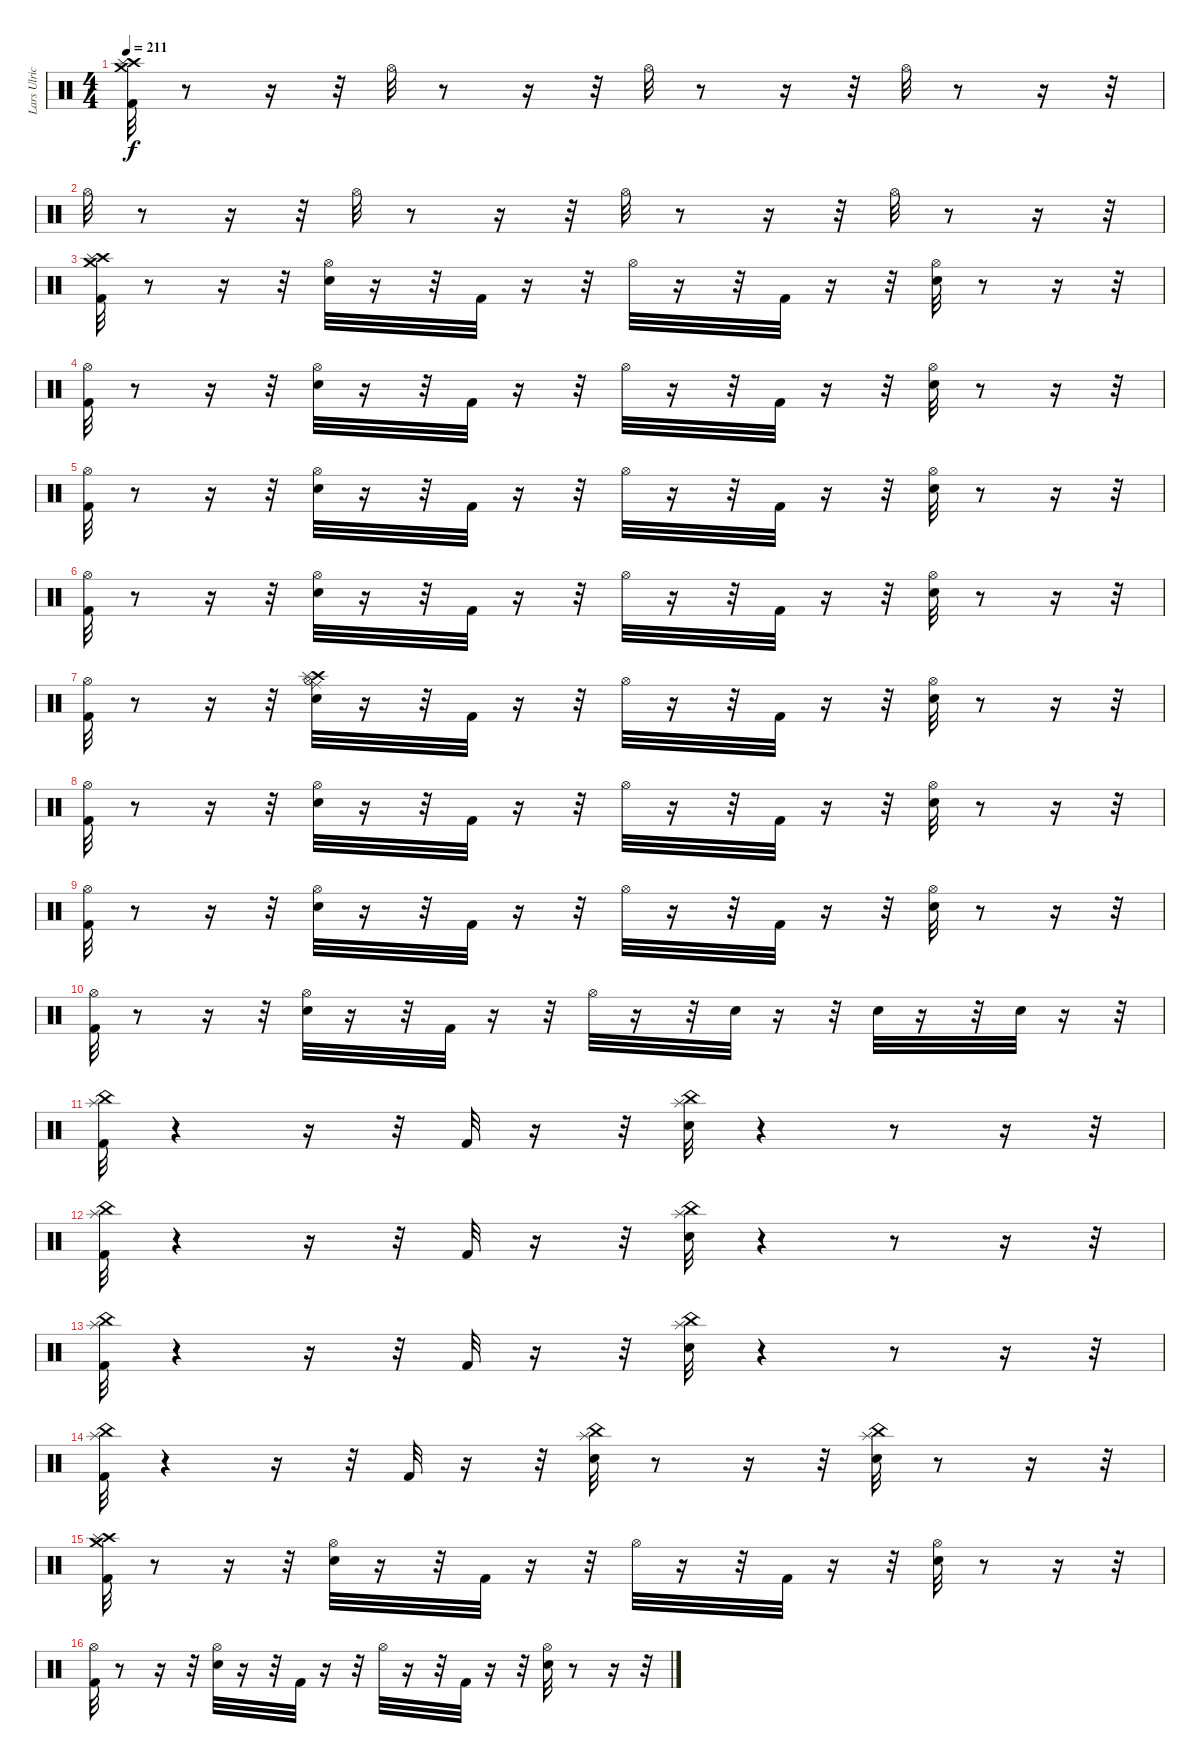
\track ("Lars Ulrich (Drums)" "Lars Ulric") {instrument percussion}
\staff {score}
\articulation defaults
\ts (4 4)
\tempo 211
\clef neutral
\ks c
("Kick (hit) 2" "Crash high (hit)" "Crash medium (hit)" "Splash (hit)").32{dy f} r.8 r.16 r.32 "Hi-Hat (open)".32 r.8 r.16 r.32 "Hi-Hat (open)".32 r.8 r.16 r.32 "Hi-Hat (open)".32 r.8 r.16 r.32 |
"Hi-Hat (open)".32 r.8 r.16 r.32 "Hi-Hat (open)".32 r.8 r.16 r.32 "Hi-Hat (open)".32 r.8 r.16 r.32 "Hi-Hat (open)".32 r.8 r.16 r.32 |
("Kick (hit) 2" "Crash high (hit)" "Crash medium (hit)" "Splash (hit)").32 r.8 r.16 r.32 ("Snare (hit) 2" "Hi-Hat (open)").32 r.16 r.32 "Kick (hit) 2".32 r.16 r.32 "Hi-Hat (open)".32 r.16 r.32 "Kick (hit) 2".32 r.16 r.32 ("Snare (hit) 2" "Hi-Hat (open)").32 r.8 r.16 r.32 |
("Kick (hit) 2" "Hi-Hat (open)").32 r.8 r.16 r.32 ("Snare (hit) 2" "Hi-Hat (open)").32 r.16 r.32 "Kick (hit) 2".32 r.16 r.32 "Hi-Hat (open)".32 r.16 r.32 "Kick (hit) 2".32 r.16 r.32 ("Snare (hit) 2" "Hi-Hat (open)").32 r.8 r.16 r.32 |
("Kick (hit) 2" "Hi-Hat (open)").32 r.8 r.16 r.32 ("Snare (hit) 2" "Hi-Hat (open)").32 r.16 r.32 "Kick (hit) 2".32 r.16 r.32 "Hi-Hat (open)".32 r.16 r.32 "Kick (hit) 2".32 r.16 r.32 ("Snare (hit) 2" "Hi-Hat (open)").32 r.8 r.16 r.32 |
("Kick (hit) 2" "Hi-Hat (open)").32 r.8 r.16 r.32 ("Snare (hit) 2" "Hi-Hat (open)").32 r.16 r.32 "Kick (hit) 2".32 r.16 r.32 "Hi-Hat (open)".32 r.16 r.32 "Kick (hit) 2".32 r.16 r.32 ("Snare (hit) 2" "Hi-Hat (open)").32 r.8 r.16 r.32 |
("Kick (hit) 2" "Hi-Hat (open)").32 r.8 r.16 r.32 ("Crash high (hit)" "Ride (middle)" "Splash (hit)" "Snare (hit) 2" "Hi-Hat (open)").32 r.16 r.32 "Kick (hit) 2".32 r.16 r.32 "Hi-Hat (open)".32 r.16 r.32 "Kick (hit) 2".32 r.16 r.32 ("Snare (hit) 2" "Hi-Hat (open)").32 r.8 r.16 r.32 |
("Kick (hit) 2" "Hi-Hat (open)").32 r.8 r.16 r.32 ("Snare (hit) 2" "Hi-Hat (open)").32 r.16 r.32 "Kick (hit) 2".32 r.16 r.32 "Hi-Hat (open)".32 r.16 r.32 "Kick (hit) 2".32 r.16 r.32 ("Snare (hit) 2" "Hi-Hat (open)").32 r.8 r.16 r.32 |
("Kick (hit) 2" "Hi-Hat (open)").32 r.8 r.16 r.32 ("Snare (hit) 2" "Hi-Hat (open)").32 r.16 r.32 "Kick (hit) 2".32 r.16 r.32 "Hi-Hat (open)".32 r.16 r.32 "Kick (hit) 2".32 r.16 r.32 ("Snare (hit) 2" "Hi-Hat (open)").32 r.8 r.16 r.32 |
("Kick (hit) 2" "Hi-Hat (open)").32 r.8 r.16 r.32 ("Snare (hit) 2" "Hi-Hat (open)").32 r.16 r.32 "Kick (hit) 2".32 r.16 r.32 "Hi-Hat (open)".32 r.16 r.32 "Snare (hit) 2".32 r.16 r.32 "Snare (hit) 2".32 r.16 r.32 "Snare (hit) 2".32 r.16 r.32 |
("Kick (hit) 2" "China (hit)" "Splash (hit)").32 r.4 r.16 r.32 "Kick (hit) 2".32 r.16 r.32 ("Snare (hit) 2" "China (hit)" "Splash (hit)").32 r.4 r.8 r.16 r.32 |
("Kick (hit) 2" "China (hit)" "Splash (hit)").32 r.4 r.16 r.32 "Kick (hit) 2".32 r.16 r.32 ("Snare (hit) 2" "China (hit)" "Splash (hit)").32 r.4 r.8 r.16 r.32 |
("Kick (hit) 2" "China (hit)" "Splash (hit)").32 r.4 r.16 r.32 "Kick (hit) 2".32 r.16 r.32 ("Snare (hit) 2" "China (hit)" "Splash (hit)").32 r.4 r.8 r.16 r.32 |
("Kick (hit) 2" "China (hit)" "Splash (hit)").32 r.4 r.16 r.32 "Kick (hit) 2".32 r.16 r.32 ("Snare (hit) 2" "China (hit)" "Splash (hit)").32 r.8 r.16 r.32 ("Splash (hit)" "China (hit)" "Snare (hit) 2").32 r.8 r.16 r.32 |
("Kick (hit) 2" "Crash high (hit)" "Crash medium (hit)" "Splash (hit)").32 r.8 r.16 r.32 ("Snare (hit) 2" "Hi-Hat (open)").32 r.16 r.32 "Kick (hit) 2".32 r.16 r.32 "Hi-Hat (open)".32 r.16 r.32 "Kick (hit) 2".32 r.16 r.32 ("Snare (hit) 2" "Hi-Hat (open)").32 r.8 r.16 r.32 |
("Kick (hit) 2" "Hi-Hat (open)").32 r.8 r.16 r.32 ("Snare (hit) 2" "Hi-Hat (open)").32 r.16 r.32 "Kick (hit) 2".32 r.16 r.32 "Hi-Hat (open)".32 r.16 r.32 "Kick (hit) 2".32 r.16 r.32 ("Snare (hit) 2" "Hi-Hat (open)").32 r.8 r.16 r.32
